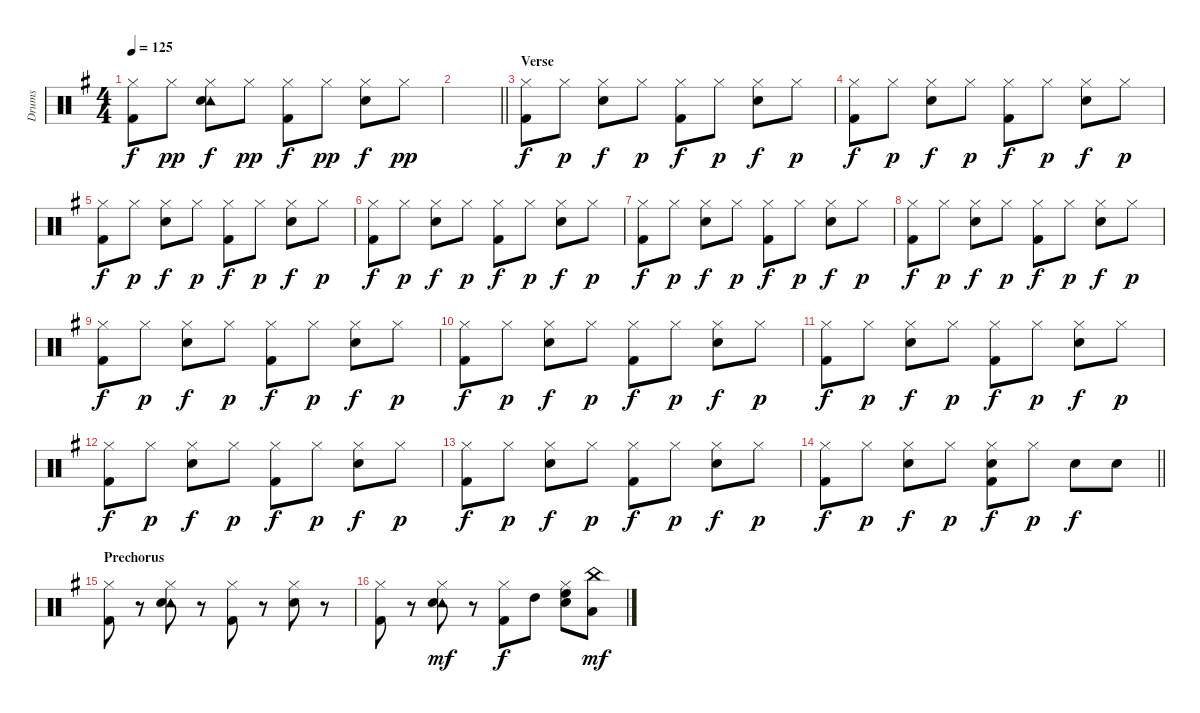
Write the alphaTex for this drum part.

\track ("Drums" "Drums") {instrument percussion}
\staff {score}
\articulation defaults
\ts (4 4)
\tempo 125
\clef neutral
\ks g
("Hi-Hat (closed)" "Kick (hit) 2").8{dy f} "Hi-Hat (closed)".8{dy pp} ("Hi-Hat (closed)" "Tambourine (hit)" "Electric Snare (hit)").8{dy f} "Hi-Hat (closed)".8{dy pp} ("Hi-Hat (closed)" "Kick (hit) 2").8{dy f} "Hi-Hat (closed)".8{dy pp} ("Hi-Hat (closed)" "Electric Snare (hit)").8{dy f} "Hi-Hat (closed)".8{dy pp} |
\barLineRight lightlight
|
\section ("" "Verse")
("Hi-Hat (closed)" "Kick (hit) 2").8{dy f} "Hi-Hat (closed)".8{dy p} ("Hi-Hat (closed)" "Electric Snare (hit)").8{dy f} "Hi-Hat (closed)".8{dy p} ("Hi-Hat (closed)" "Kick (hit) 2").8{dy f} "Hi-Hat (closed)".8{dy p} ("Hi-Hat (closed)" "Electric Snare (hit)").8{dy f} "Hi-Hat (closed)".8{dy p} |
("Hi-Hat (closed)" "Kick (hit) 2").8{dy f} "Hi-Hat (closed)".8{dy p} ("Hi-Hat (closed)" "Electric Snare (hit)").8{dy f} "Hi-Hat (closed)".8{dy p} ("Hi-Hat (closed)" "Kick (hit) 2").8{dy f} "Hi-Hat (closed)".8{dy p} ("Hi-Hat (closed)" "Electric Snare (hit)").8{dy f} "Hi-Hat (closed)".8{dy p} |
("Hi-Hat (closed)" "Kick (hit) 2").8{dy f} "Hi-Hat (closed)".8{dy p} ("Hi-Hat (closed)" "Electric Snare (hit)").8{dy f} "Hi-Hat (closed)".8{dy p} ("Hi-Hat (closed)" "Kick (hit) 2").8{dy f} "Hi-Hat (closed)".8{dy p} ("Hi-Hat (closed)" "Electric Snare (hit)").8{dy f} "Hi-Hat (closed)".8{dy p} |
("Hi-Hat (closed)" "Kick (hit) 2").8{dy f} "Hi-Hat (closed)".8{dy p} ("Hi-Hat (closed)" "Electric Snare (hit)").8{dy f} "Hi-Hat (closed)".8{dy p} ("Hi-Hat (closed)" "Kick (hit) 2").8{dy f} "Hi-Hat (closed)".8{dy p} ("Hi-Hat (closed)" "Electric Snare (hit)").8{dy f} "Hi-Hat (closed)".8{dy p} |
("Hi-Hat (closed)" "Kick (hit) 2").8{dy f} "Hi-Hat (closed)".8{dy p} ("Hi-Hat (closed)" "Electric Snare (hit)").8{dy f} "Hi-Hat (closed)".8{dy p} ("Hi-Hat (closed)" "Kick (hit) 2").8{dy f} "Hi-Hat (closed)".8{dy p} ("Hi-Hat (closed)" "Electric Snare (hit)").8{dy f} "Hi-Hat (closed)".8{dy p} |
("Hi-Hat (closed)" "Kick (hit) 2").8{dy f} "Hi-Hat (closed)".8{dy p} ("Hi-Hat (closed)" "Electric Snare (hit)").8{dy f} "Hi-Hat (closed)".8{dy p} ("Hi-Hat (closed)" "Kick (hit) 2").8{dy f} "Hi-Hat (closed)".8{dy p} ("Hi-Hat (closed)" "Electric Snare (hit)").8{dy f} "Hi-Hat (closed)".8{dy p} |
("Hi-Hat (closed)" "Kick (hit) 2").8{dy f} "Hi-Hat (closed)".8{dy p} ("Hi-Hat (closed)" "Electric Snare (hit)").8{dy f} "Hi-Hat (closed)".8{dy p} ("Hi-Hat (closed)" "Kick (hit) 2").8{dy f} "Hi-Hat (closed)".8{dy p} ("Hi-Hat (closed)" "Electric Snare (hit)").8{dy f} "Hi-Hat (closed)".8{dy p} |
("Hi-Hat (closed)" "Kick (hit) 2").8{dy f} "Hi-Hat (closed)".8{dy p} ("Hi-Hat (closed)" "Electric Snare (hit)").8{dy f} "Hi-Hat (closed)".8{dy p} ("Hi-Hat (closed)" "Kick (hit) 2").8{dy f} "Hi-Hat (closed)".8{dy p} ("Hi-Hat (closed)" "Electric Snare (hit)").8{dy f} "Hi-Hat (closed)".8{dy p} |
("Hi-Hat (closed)" "Kick (hit) 2").8{dy f} "Hi-Hat (closed)".8{dy p} ("Hi-Hat (closed)" "Electric Snare (hit)").8{dy f} "Hi-Hat (closed)".8{dy p} ("Hi-Hat (closed)" "Kick (hit) 2").8{dy f} "Hi-Hat (closed)".8{dy p} ("Hi-Hat (closed)" "Electric Snare (hit)").8{dy f} "Hi-Hat (closed)".8{dy p} |
("Hi-Hat (closed)" "Kick (hit) 2").8{dy f} "Hi-Hat (closed)".8{dy p} ("Hi-Hat (closed)" "Electric Snare (hit)").8{dy f} "Hi-Hat (closed)".8{dy p} ("Hi-Hat (closed)" "Kick (hit) 2").8{dy f} "Hi-Hat (closed)".8{dy p} ("Hi-Hat (closed)" "Electric Snare (hit)").8{dy f} "Hi-Hat (closed)".8{dy p} |
("Hi-Hat (closed)" "Kick (hit) 2").8{dy f} "Hi-Hat (closed)".8{dy p} ("Hi-Hat (closed)" "Electric Snare (hit)").8{dy f} "Hi-Hat (closed)".8{dy p} ("Hi-Hat (closed)" "Kick (hit) 2").8{dy f} "Hi-Hat (closed)".8{dy p} ("Hi-Hat (closed)" "Electric Snare (hit)").8{dy f} "Hi-Hat (closed)".8{dy p} |
\barLineRight lightlight
("Hi-Hat (closed)" "Kick (hit) 2").8{dy f} "Hi-Hat (closed)".8{dy p} ("Hi-Hat (closed)" "Electric Snare (hit)").8{dy f} "Hi-Hat (closed)".8{dy p} ("Hi-Hat (closed)" "Electric Snare (hit)" "Kick (hit) 2").8{dy f} "Hi-Hat (closed)".8{dy p} "Electric Snare (hit)".8{dy f} "Electric Snare (hit)".8 |
\section ("" "Prechorus")
("Hi-Hat (closed)" "Kick (hit) 2").8 r.8 ("Hi-Hat (closed)" "Tambourine (hit)" "Electric Snare (hit)").8 r.8 ("Hi-Hat (closed)" "Kick (hit) 2").8 r.8 ("Hi-Hat (closed)" "Electric Snare (hit)").8 r.8 |
("Hi-Hat (closed)" "Kick (hit) 2").8 r.8 ("Hi-Hat (closed)" "Tambourine (hit)" "Electric Snare (hit)").8{dy mf} r.8 ("Hi-Hat (closed)" "Kick (hit) 2").8{dy f} "High Tom (hit)".8 ("Hi-Hat (closed)" "Electric Snare (hit)" "High Floor Tom (hit)").8 ("China (hit)" "Low Tom (hit)").8{dy mf}
